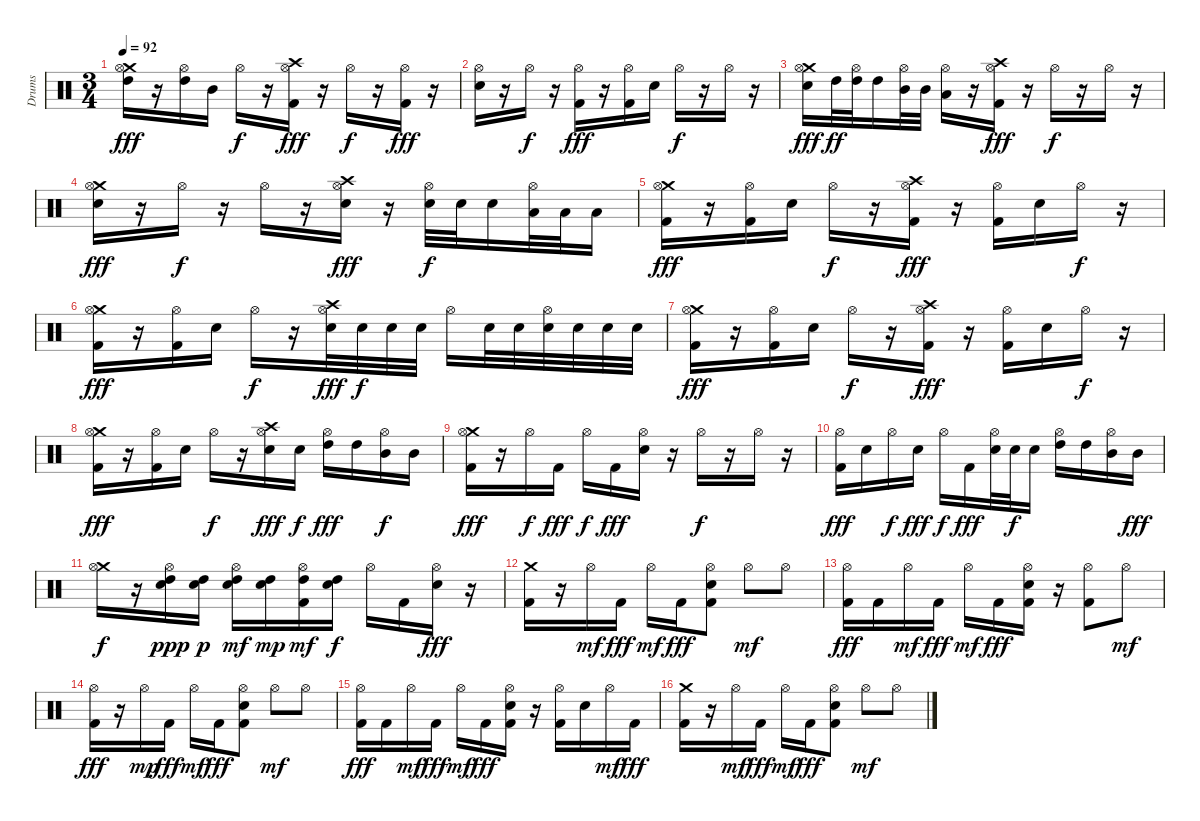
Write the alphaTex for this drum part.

\track ("Drums" "Drums") {instrument percussion}
\staff {score}
\articulation defaults
\ts (3 4)
\tempo 92
\clef neutral
\ks c
("Crash medium (hit)" "Hi-Hat (open)" "High Tom (hit)").16{dy fff} r.16 ("Hi-Hat (open)" "High Tom (hit)").16 "Mid Tom (hit)".16 "Hi-Hat (open)".16{dy f} r.16 ("Crash high (hit)" "Hi-Hat (open)" "Kick (hit) 2").16{dy fff} r.16 "Hi-Hat (open)".16{dy f} r.16 ("Hi-Hat (open)" "Kick (hit) 2").16{dy fff} r.16 |
("Hi-Hat (open)" "Snare (hit) 2").16 r.16 "Hi-Hat (open)".16{dy f} r.16 ("Hi-Hat (open)" "Kick (hit) 2").16{dy fff} r.16 ("Hi-Hat (open)" "Kick (hit) 2").16 "Snare (hit) 2".16 "Hi-Hat (open)".16{dy f} r.16 "Hi-Hat (open)".16 r.16 |
("Crash medium (hit)" "Hi-Hat (open)" "Snare (hit) 2").16{dy fff} "High Tom (hit)".32{dy ff} ("Hi-Hat (open)" "High Tom (hit)").32 "High Tom (hit)".16 ("Hi-Hat (open)" "Mid Tom (hit)").32 "Mid Tom (hit)".32 ("Hi-Hat (open)" "Low Tom (hit)").16 r.16 ("Crash high (hit)" "Hi-Hat (open)" "Kick (hit) 2").16{dy fff} r.16 "Hi-Hat (open)".16{dy f} r.16 "Hi-Hat (open)".16 r.16 |
("Crash medium (hit)" "Hi-Hat (open)" "Snare (hit) 2").16{dy fff} r.16 "Hi-Hat (open)".16{dy f} r.16 "Hi-Hat (open)".16 r.16 ("Crash high (hit)" "Hi-Hat (open)" "Snare (hit) 2").16{dy fff} r.16 ("Hi-Hat (open)" "Snare (hit) 2").32{dy f} "Snare (hit) 2".32 "Snare (hit) 2".16 ("Hi-Hat (open)" "Low Tom (hit)").32 "Low Tom (hit)".32 "Low Tom (hit)".16 |
("Crash medium (hit)" "Hi-Hat (open)" "Kick (hit) 2").16{dy fff} r.16 ("Hi-Hat (open)" "Kick (hit) 2").16 "Snare (hit) 2".16 "Hi-Hat (open)".16{dy f} r.16 ("Crash high (hit)" "Hi-Hat (open)" "Kick (hit) 2").16{dy fff} r.16 ("Hi-Hat (open)" "Kick (hit) 2").16 "Snare (hit) 2".16 "Hi-Hat (open)".16{dy f} r.16 |
("Crash medium (hit)" "Hi-Hat (open)" "Kick (hit) 2").16{dy fff} r.16 ("Hi-Hat (open)" "Kick (hit) 2").16 "Snare (hit) 2".16 "Hi-Hat (open)".16{dy f} r.16 ("Crash high (hit)" "Hi-Hat (open)" "Snare (hit) 2").32{dy fff} "Snare (hit) 2".32{dy f} "Snare (hit) 2".32 "Snare (hit) 2".32 "Hi-Hat (open)".16 "Snare (hit) 2".32 "Snare (hit) 2".32 ("Hi-Hat (open)" "Snare (hit) 2").32 "Snare (hit) 2".32 "Snare (hit) 2".32 "Snare (hit) 2".32 |
("Crash medium (hit)" "Hi-Hat (open)" "Kick (hit) 2").16{dy fff} r.16 ("Hi-Hat (open)" "Kick (hit) 2").16 "Snare (hit) 2".16 "Hi-Hat (open)".16{dy f} r.16 ("Crash high (hit)" "Hi-Hat (open)" "Kick (hit) 2").16{dy fff} r.16 ("Hi-Hat (open)" "Kick (hit) 2").16 "Snare (hit) 2".16 "Hi-Hat (open)".16{dy f} r.16 |
("Crash medium (hit)" "Hi-Hat (open)" "Kick (hit) 2").16{dy fff} r.16 ("Hi-Hat (open)" "Kick (hit) 2").16 "Snare (hit) 2".16 "Hi-Hat (open)".16{dy f} r.16 ("Crash high (hit)" "Hi-Hat (open)" "Snare (hit) 2").16{dy fff} "Snare (hit) 2".16{dy f} ("Hi-Hat (open)" "High Tom (hit)").16{dy fff} "High Tom (hit)".16 ("Hi-Hat (open)" "Mid Tom (hit)").16{dy f} "Mid Tom (hit)".16 |
("Crash medium (hit)" "Hi-Hat (open)" "Kick (hit) 2").16{dy fff} r.16 "Hi-Hat (open)".16{dy f} "Kick (hit) 2".16{dy fff} "Hi-Hat (open)".16{dy f} "Kick (hit) 2".16{dy fff} ("Hi-Hat (open)" "Snare (hit) 2").16 r.16 "Hi-Hat (open)".16{dy f} r.16 "Hi-Hat (open)".16 r.16 |
("Hi-Hat (open)" "Kick (hit) 2").16{dy fff} "Snare (hit) 2".16 "Hi-Hat (open)".16{dy f} "Snare (hit) 2".16{dy fff} "Hi-Hat (open)".16{dy f} "Kick (hit) 2".16{dy fff} ("Hi-Hat (open)" "Snare (hit) 2").32 "Snare (hit) 2".32{dy f} "Snare (hit) 2".16 ("Hi-Hat (open)" "High Tom (hit)").16 "High Tom (hit)".16 ("Hi-Hat (open)" "Mid Tom (hit)").16 "Mid Tom (hit)".16{dy fff} |
("Crash medium (hit)" "Hi-Hat (open)").16{dy f} r.16 ("Hi-Hat (open)" "High Tom (hit)" "Snare (hit) 2").16{dy ppp} ("High Tom (hit)" "Snare (hit) 2").16{dy p} ("Hi-Hat (open)" "High Tom (hit)" "Snare (hit) 2").16{dy mf} ("High Tom (hit)" "Snare (hit) 2").16{dy mp} ("Hi-Hat (open)" "High Tom (hit)" "Kick (hit) 2").16{dy mf} ("High Tom (hit)" "Snare (hit) 2").16{dy f} "Hi-Hat (open)".16 "Kick (hit) 2".16 ("Hi-Hat (open)" "Snare (hit) 2").16{dy fff} r.16 |
("Crash medium (hit)" "Kick (hit) 2").16 r.16 "Hi-Hat (open)".16{dy mf} "Kick (hit) 2".16{dy fff} "Hi-Hat (open)".16{dy mf} "Kick (hit) 2".16{dy fff} ("Hi-Hat (open)" "Snare (hit) 2" "Kick (hit) 2").8 "Hi-Hat (open)".8{dy mf} "Hi-Hat (open)".8 |
("Hi-Hat (open)" "Kick (hit) 2").16{dy fff} "Kick (hit) 2".16 "Hi-Hat (open)".16{dy mf} "Kick (hit) 2".16{dy fff} "Hi-Hat (open)".16{dy mf} "Kick (hit) 2".16{dy fff} ("Hi-Hat (open)" "Snare (hit) 2" "Kick (hit) 2").16 r.16 ("Hi-Hat (open)" "Kick (hit) 2").8 "Hi-Hat (open)".8{dy mf} |
("Hi-Hat (open)" "Kick (hit) 2").16{dy fff} r.16 "Hi-Hat (open)".16{dy mp} "Kick (hit) 2".16{dy fff} "Hi-Hat (open)".16{dy mf} "Kick (hit) 2".16{dy fff} ("Hi-Hat (open)" "Snare (hit) 2" "Kick (hit) 2").8 "Hi-Hat (open)".8{dy mf} "Hi-Hat (open)".8 |
("Hi-Hat (open)" "Kick (hit) 2").16{dy fff} "Kick (hit) 2".16 "Hi-Hat (open)".16{dy mf} "Kick (hit) 2".16{dy fff} "Hi-Hat (open)".16{dy mf} "Kick (hit) 2".16{dy fff} ("Hi-Hat (open)" "Snare (hit) 2" "Kick (hit) 2").16 r.16 ("Hi-Hat (open)" "Kick (hit) 2").16 "Snare (hit) 2".16 "Hi-Hat (open)".16{dy mf} "Kick (hit) 2".16{dy fff} |
("Crash medium (hit)" "Kick (hit) 2").16 r.16 "Hi-Hat (open)".16{dy mf} "Kick (hit) 2".16{dy fff} "Hi-Hat (open)".16{dy mf} "Kick (hit) 2".16{dy fff} ("Hi-Hat (open)" "Snare (hit) 2" "Kick (hit) 2").8 "Hi-Hat (open)".8{dy mf} "Hi-Hat (open)".8
